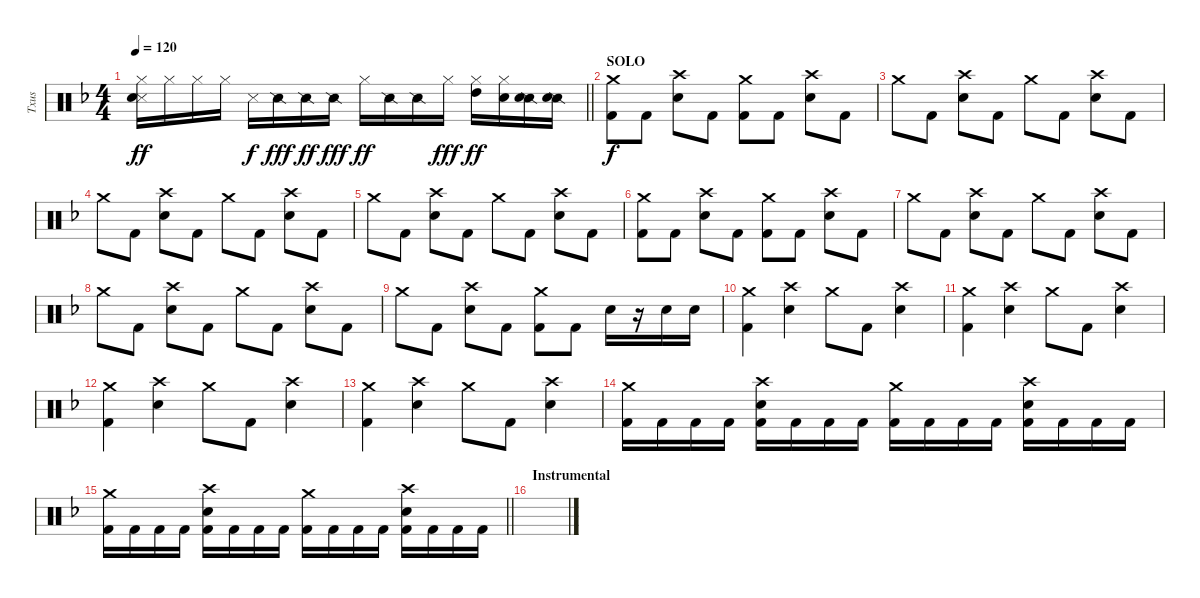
\track ("Txus" "Txus") {instrument percussion}
\staff {score}
\articulation defaults
\ts (4 4)
\tempo 120
\clef neutral
\barLineRight lightlight
\ks dminor
("Hi-Hat (closed)" "Metronome (hit)" "Electric Snare (hit)").16{dy ff} "Hi-Hat (closed)".16 "Hi-Hat (closed)".16 "Hi-Hat (closed)".16 "Metronome (hit)".16{dy f} "Snare (side stick) 2".16{dy fff} "Snare (side stick) 2".16{dy ff} "Snare (side stick) 2".16{dy fff} "Hi-Hat (closed)".16{dy ff} "Snare (side stick) 2".16 "Snare (side stick) 2".16 "Hi-Hat (closed)".16{dy fff} ("Hi-Hat (closed)" "High Tom (hit)").16{dy ff} ("Hi-Hat (closed)" "Electric Snare (hit)").16 ("Snare (side stick) 2" "Electric Snare (hit)").16 ("Snare (side stick) 2" "Electric Snare (hit)").16 |
\section ("" "SOLO")
("Crash medium (hit)" "Kick (hit) 2").8{dy f} "Kick (hit) 2".8 ("Crash high (hit)" "Electric Snare (hit)").8 "Kick (hit) 2".8 ("Crash medium (hit)" "Kick (hit) 2").8 "Kick (hit) 2".8 ("Crash high (hit)" "Electric Snare (hit)").8 "Kick (hit) 2".8 |
"Crash medium (hit)".8 "Kick (hit) 2".8 ("Crash high (hit)" "Electric Snare (hit)").8 "Kick (hit) 2".8 "Crash medium (hit)".8 "Kick (hit) 2".8 ("Crash high (hit)" "Electric Snare (hit)").8 "Kick (hit) 2".8 |
"Crash medium (hit)".8 "Kick (hit) 2".8 ("Crash high (hit)" "Electric Snare (hit)").8 "Kick (hit) 2".8 "Crash medium (hit)".8 "Kick (hit) 2".8 ("Crash high (hit)" "Electric Snare (hit)").8 "Kick (hit) 2".8 |
"Crash medium (hit)".8 "Kick (hit) 2".8 ("Crash high (hit)" "Electric Snare (hit)").8 "Kick (hit) 2".8 "Crash medium (hit)".8 "Kick (hit) 2".8 ("Crash high (hit)" "Electric Snare (hit)").8 "Kick (hit) 2".8 |
("Crash medium (hit)" "Kick (hit) 2").8 "Kick (hit) 2".8 ("Crash high (hit)" "Electric Snare (hit)").8 "Kick (hit) 2".8 ("Crash medium (hit)" "Kick (hit) 2").8 "Kick (hit) 2".8 ("Crash high (hit)" "Electric Snare (hit)").8 "Kick (hit) 2".8 |
"Crash medium (hit)".8 "Kick (hit) 2".8 ("Crash high (hit)" "Electric Snare (hit)").8 "Kick (hit) 2".8 "Crash medium (hit)".8 "Kick (hit) 2".8 ("Crash high (hit)" "Electric Snare (hit)").8 "Kick (hit) 2".8 |
"Crash medium (hit)".8 "Kick (hit) 2".8 ("Crash high (hit)" "Electric Snare (hit)").8 "Kick (hit) 2".8 "Crash medium (hit)".8 "Kick (hit) 2".8 ("Crash high (hit)" "Electric Snare (hit)").8 "Kick (hit) 2".8 |
"Crash medium (hit)".8 "Kick (hit) 2".8 ("Crash high (hit)" "Electric Snare (hit)").8 "Kick (hit) 2".8 ("Crash medium (hit)" "Kick (hit) 2").8 "Kick (hit) 2".8 "Electric Snare (hit)".16 r.16 "Electric Snare (hit)".16 "Electric Snare (hit)".16 |
("Crash medium (hit)" "Kick (hit) 2").4 ("Crash high (hit)" "Electric Snare (hit)").4 "Crash medium (hit)".8 "Kick (hit) 2".8 ("Crash high (hit)" "Electric Snare (hit)").4 |
("Crash medium (hit)" "Kick (hit) 2").4 ("Crash high (hit)" "Electric Snare (hit)").4 "Crash medium (hit)".8 "Kick (hit) 2".8 ("Crash high (hit)" "Electric Snare (hit)").4 |
("Crash medium (hit)" "Kick (hit) 2").4 ("Crash high (hit)" "Electric Snare (hit)").4 "Crash medium (hit)".8 "Kick (hit) 2".8 ("Crash high (hit)" "Electric Snare (hit)").4 |
("Crash medium (hit)" "Kick (hit) 2").4 ("Crash high (hit)" "Electric Snare (hit)").4 "Crash medium (hit)".8 "Kick (hit) 2".8 ("Crash high (hit)" "Electric Snare (hit)").4 |
("Crash medium (hit)" "Kick (hit) 2").16 "Kick (hit) 2".16 "Kick (hit) 2".16 "Kick (hit) 2".16 ("Crash high (hit)" "Electric Snare (hit)" "Kick (hit) 2").16 "Kick (hit) 2".16 "Kick (hit) 2".16 "Kick (hit) 2".16 ("Crash medium (hit)" "Kick (hit) 2").16 "Kick (hit) 2".16 "Kick (hit) 2".16 "Kick (hit) 2".16 ("Crash high (hit)" "Electric Snare (hit)" "Kick (hit) 2").16 "Kick (hit) 2".16 "Kick (hit) 2".16 "Kick (hit) 2".16 |
\barLineRight lightlight
("Crash medium (hit)" "Kick (hit) 2").16 "Kick (hit) 2".16 "Kick (hit) 2".16 "Kick (hit) 2".16 ("Crash high (hit)" "Electric Snare (hit)" "Kick (hit) 2").16 "Kick (hit) 2".16 "Kick (hit) 2".16 "Kick (hit) 2".16 ("Crash medium (hit)" "Kick (hit) 2").16 "Kick (hit) 2".16 "Kick (hit) 2".16 "Kick (hit) 2".16 ("Crash high (hit)" "Electric Snare (hit)" "Kick (hit) 2").16 "Kick (hit) 2".16 "Kick (hit) 2".16 "Kick (hit) 2".16 |
\section ("" "Instrumental")
